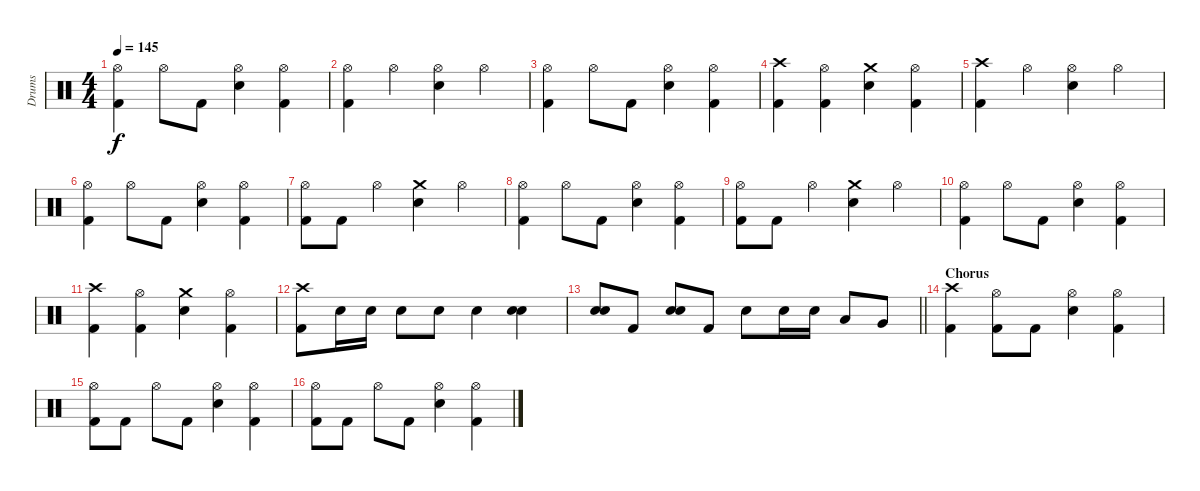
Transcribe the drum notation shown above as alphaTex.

\track ("Drums" "Drums") {instrument percussion}
\staff {score}
\articulation defaults
\ts (4 4)
\tempo 145
\clef neutral
\ks c
("Hi-Hat (open)" "Kick (hit) 2").4{dy f} "Hi-Hat (open)".8 "Kick (hit) 2".8 ("Hi-Hat (open)" "Snare (hit) 2").4 ("Hi-Hat (open)" "Kick (hit) 2").4 |
("Hi-Hat (open)" "Kick (hit) 2").4 "Hi-Hat (open)".4 ("Hi-Hat (open)" "Snare (hit) 2").4 "Hi-Hat (open)".4 |
("Hi-Hat (open)" "Kick (hit) 2").4 "Hi-Hat (open)".8 "Kick (hit) 2".8 ("Hi-Hat (open)" "Snare (hit) 2").4 ("Hi-Hat (open)" "Kick (hit) 2").4 |
("Crash high (hit)" "Kick (hit) 2").4 ("Hi-Hat (open)" "Kick (hit) 2").4 ("Crash medium (hit)" "Snare (hit) 2").4 ("Hi-Hat (open)" "Kick (hit) 2").4 |
("Crash high (hit)" "Kick (hit) 2").4 "Hi-Hat (open)".4 ("Hi-Hat (open)" "Snare (hit) 2").4 "Hi-Hat (open)".4 |
("Hi-Hat (open)" "Kick (hit) 2").4 "Hi-Hat (open)".8 "Kick (hit) 2".8 ("Hi-Hat (open)" "Snare (hit) 2").4 ("Hi-Hat (open)" "Kick (hit) 2").4 |
("Hi-Hat (open)" "Kick (hit) 2").8 "Kick (hit) 2".8 "Hi-Hat (open)".4 ("Crash medium (hit)" "Snare (hit) 2").4 "Hi-Hat (open)".4 |
("Hi-Hat (open)" "Kick (hit) 2").4 "Hi-Hat (open)".8 "Kick (hit) 2".8 ("Hi-Hat (open)" "Snare (hit) 2").4 ("Hi-Hat (open)" "Kick (hit) 2").4 |
("Hi-Hat (open)" "Kick (hit) 2").8 "Kick (hit) 2".8 "Hi-Hat (open)".4 ("Crash medium (hit)" "Snare (hit) 2").4 "Hi-Hat (open)".4 |
("Hi-Hat (open)" "Kick (hit) 2").4 "Hi-Hat (open)".8 "Kick (hit) 2".8 ("Hi-Hat (open)" "Snare (hit) 2").4 ("Hi-Hat (open)" "Kick (hit) 2").4 |
("Crash high (hit)" "Kick (hit) 2").4 ("Hi-Hat (open)" "Kick (hit) 2").4 ("Crash medium (hit)" "Snare (hit) 2").4 ("Hi-Hat (open)" "Kick (hit) 2").4 |
("Crash high (hit)" "Kick (hit) 2").8 "Snare (hit) 2".16 "Snare (hit) 2".16 "Snare (hit) 2".8 "Snare (hit) 2".8 "Snare (hit) 2".4 ("Snare (hit) 2" "Snare (hit) 2").4{bd 120} |
\barLineRight lightlight
("Snare (hit) 2" "Snare (hit) 2").8{bd 120} "Kick (hit) 2".8 ("Snare (hit) 2" "Snare (hit) 2").8{bd 120} "Kick (hit) 2".8 "Snare (hit) 2".8 "Snare (hit) 2".16 "Snare (hit) 2".16 "Low Tom (hit)".8 "Very Low Tom (hit)".8 |
\section ("" "Chorus")
("Crash high (hit)" "Kick (hit) 2").4 ("Hi-Hat (open)" "Kick (hit) 2").8 "Kick (hit) 2".8 ("Hi-Hat (open)" "Snare (hit) 2").4 ("Hi-Hat (open)" "Kick (hit) 2").4 |
("Hi-Hat (open)" "Kick (hit) 2").8 "Kick (hit) 2".8 "Hi-Hat (open)".8 "Kick (hit) 2".8 ("Hi-Hat (open)" "Snare (hit) 2").4 ("Hi-Hat (open)" "Kick (hit) 2").4 |
("Hi-Hat (open)" "Kick (hit) 2").8 "Kick (hit) 2".8 "Hi-Hat (open)".8 "Kick (hit) 2".8 ("Hi-Hat (open)" "Snare (hit) 2").4 ("Hi-Hat (open)" "Kick (hit) 2").4
